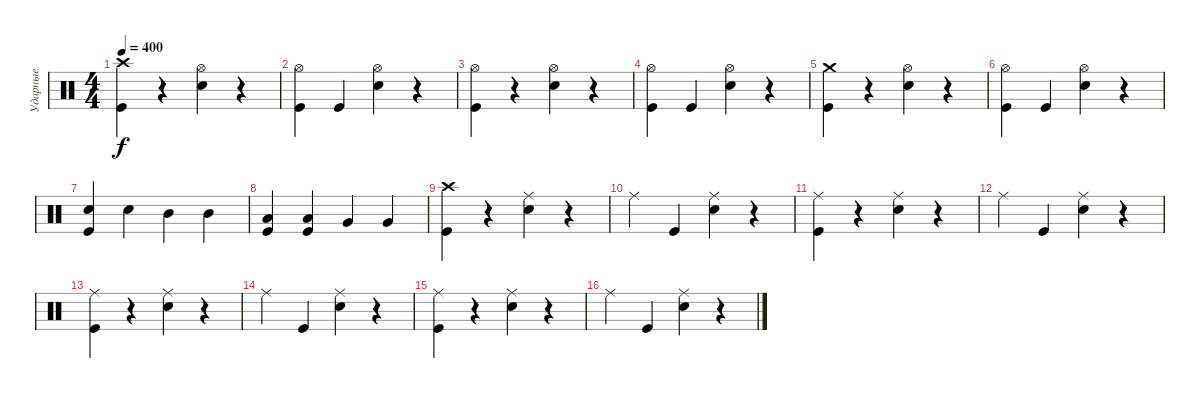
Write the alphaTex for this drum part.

\track ("Ударные" "Ударные") {instrument percussion}
\staff {score}
\articulation defaults
\ts (4 4)
\tempo 400
\clef neutral
\ks c
("Kick (hit)" "Crash high (hit)").4{dy f} r.4 ("Snare (hit) 2" "Hi-Hat (open)").4 r.4 |
("Kick (hit)" "Hi-Hat (open)").4 "Kick (hit)".4 ("Snare (hit) 2" "Hi-Hat (open)").4 r.4 |
("Kick (hit)" "Hi-Hat (open)").4 r.4 ("Snare (hit) 2" "Hi-Hat (open)").4 r.4 |
("Kick (hit)" "Hi-Hat (open)").4 "Kick (hit)".4 ("Snare (hit) 2" "Hi-Hat (open)").4 r.4 |
("Kick (hit)" "Crash medium (hit)").4 r.4 ("Snare (hit) 2" "Hi-Hat (open)").4 r.4 |
("Kick (hit)" "Hi-Hat (open)").4 "Kick (hit)".4 ("Snare (hit) 2" "Hi-Hat (open)").4 r.4 |
("Kick (hit)" "Snare (hit) 2").4 "Snare (hit) 2".4 "Mid Tom (hit)".4 "Mid Tom (hit)".4 |
("Kick (hit)" "Low Tom (hit)").4 ("Kick (hit)" "Low Tom (hit)").4 "Very Low Tom (hit)".4 "Very Low Tom (hit)".4 |
("Kick (hit)" "Crash high (hit)").4 r.4 ("Snare (hit) 2" "Ride (middle)").4 r.4 |
"Ride (middle)".4 "Kick (hit)".4 ("Snare (hit) 2" "Ride (middle)").4 r.4 |
("Kick (hit)" "Ride (middle)").4 r.4 ("Snare (hit) 2" "Ride (middle)").4 r.4 |
"Ride (middle)".4 "Kick (hit)".4 ("Snare (hit) 2" "Ride (middle)").4 r.4 |
("Kick (hit)" "Ride (middle)").4 r.4 ("Snare (hit) 2" "Ride (middle)").4 r.4 |
"Ride (middle)".4 "Kick (hit)".4 ("Snare (hit) 2" "Ride (middle)").4 r.4 |
("Kick (hit)" "Ride (middle)").4 r.4 ("Snare (hit) 2" "Ride (middle)").4 r.4 |
"Ride (middle)".4 "Kick (hit)".4 ("Snare (hit) 2" "Ride (middle)").4 r.4
